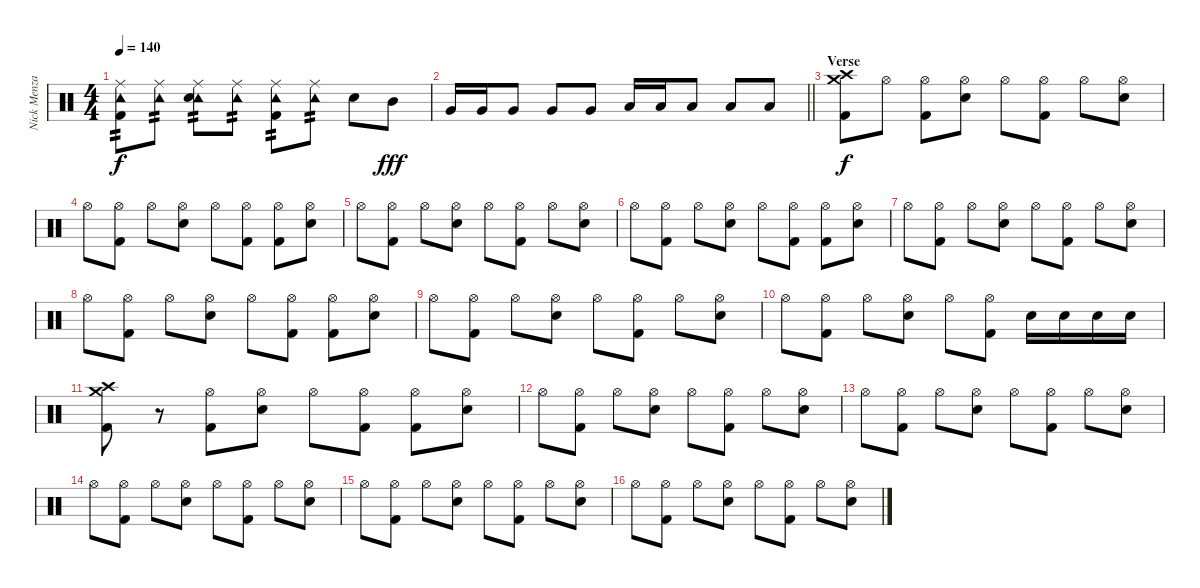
\track ("Nick Menza" "Nick Menza") {instrument percussion}
\staff {score}
\articulation defaults
\ts (4 4)
\tempo 140
\clef neutral
\ks c
("Tambourine (hit)" "Ride (middle)" "Kick (hit) 2").8{tp 2 dy f} ("Tambourine (hit)" "Ride (middle)").8{tp 2} ("Tambourine (hit)" "Ride (middle)" "Snare (hit) 2").8{tp 2} ("Tambourine (hit)" "Ride (middle)").8{tp 2} ("Tambourine (hit)" "Ride (middle)" "Kick (hit) 2").8{tp 2} ("Tambourine (hit)" "Ride (middle)").8{tp 2} "Snare (hit) 2".8 "Mid Tom (hit)".8{dy fff} |
\barLineRight lightlight "Very Low Tom (hit)".16 "Very Low Tom (hit)".16 "Very Low Tom (hit)".8 "Very Low Tom (hit)".8 "Very Low Tom (hit)".8 "Low Floor Tom (hit)".16 "Low Floor Tom (hit)".16 "Low Floor Tom (hit)".8 "Low Floor Tom (hit)".8 "Low Floor Tom (hit)".8
|
\section ("" "Verse")
("Crash high (hit)" "Crash medium (hit)" "Kick (hit) 2").8{dy f} "Hi-Hat (open)".8 ("Hi-Hat (open)" "Kick (hit) 2").8 ("Hi-Hat (open)" "Snare (hit) 2").8 "Hi-Hat (open)".8 ("Hi-Hat (open)" "Kick (hit) 2").8 "Hi-Hat (open)".8 ("Hi-Hat (open)" "Snare (hit) 2").8 |
"Hi-Hat (open)".8 ("Hi-Hat (open)" "Kick (hit) 2").8 "Hi-Hat (open)".8 ("Hi-Hat (open)" "Snare (hit) 2").8 "Hi-Hat (open)".8 ("Hi-Hat (open)" "Kick (hit) 2").8 ("Hi-Hat (open)" "Kick (hit) 2").8 ("Hi-Hat (open)" "Snare (hit) 2").8 |
"Hi-Hat (open)".8 ("Hi-Hat (open)" "Kick (hit) 2").8 "Hi-Hat (open)".8 ("Hi-Hat (open)" "Snare (hit) 2").8 "Hi-Hat (open)".8 ("Hi-Hat (open)" "Kick (hit) 2").8 "Hi-Hat (open)".8 ("Hi-Hat (open)" "Snare (hit) 2").8 |
"Hi-Hat (open)".8 ("Hi-Hat (open)" "Kick (hit) 2").8 "Hi-Hat (open)".8 ("Hi-Hat (open)" "Snare (hit) 2").8 "Hi-Hat (open)".8 ("Hi-Hat (open)" "Kick (hit) 2").8 ("Hi-Hat (open)" "Kick (hit) 2").8 ("Hi-Hat (open)" "Snare (hit) 2").8 |
"Hi-Hat (open)".8 ("Hi-Hat (open)" "Kick (hit) 2").8 "Hi-Hat (open)".8 ("Hi-Hat (open)" "Snare (hit) 2").8 "Hi-Hat (open)".8 ("Hi-Hat (open)" "Kick (hit) 2").8 "Hi-Hat (open)".8 ("Hi-Hat (open)" "Snare (hit) 2").8 |
"Hi-Hat (open)".8 ("Hi-Hat (open)" "Kick (hit) 2").8 "Hi-Hat (open)".8 ("Hi-Hat (open)" "Snare (hit) 2").8 "Hi-Hat (open)".8 ("Hi-Hat (open)" "Kick (hit) 2").8 ("Hi-Hat (open)" "Kick (hit) 2").8 ("Hi-Hat (open)" "Snare (hit) 2").8 |
"Hi-Hat (open)".8 ("Hi-Hat (open)" "Kick (hit) 2").8 "Hi-Hat (open)".8 ("Hi-Hat (open)" "Snare (hit) 2").8 "Hi-Hat (open)".8 ("Hi-Hat (open)" "Kick (hit) 2").8 "Hi-Hat (open)".8 ("Hi-Hat (open)" "Snare (hit) 2").8 |
"Hi-Hat (open)".8 ("Hi-Hat (open)" "Kick (hit) 2").8 "Hi-Hat (open)".8 ("Hi-Hat (open)" "Snare (hit) 2").8 "Hi-Hat (open)".8 ("Hi-Hat (open)" "Kick (hit) 2").8 "Snare (hit) 2".16 "Snare (hit) 2".16 "Snare (hit) 2".16 "Snare (hit) 2".16 |
("Crash high (hit)" "Crash medium (hit)" "Kick (hit) 2").8 r.8 ("Hi-Hat (open)" "Kick (hit) 2").8 ("Hi-Hat (open)" "Snare (hit) 2").8 "Hi-Hat (open)".8 ("Hi-Hat (open)" "Kick (hit) 2").8 ("Hi-Hat (open)" "Kick (hit) 2").8 ("Hi-Hat (open)" "Snare (hit) 2").8 |
"Hi-Hat (open)".8 ("Hi-Hat (open)" "Kick (hit) 2").8 "Hi-Hat (open)".8 ("Hi-Hat (open)" "Snare (hit) 2").8 "Hi-Hat (open)".8 ("Hi-Hat (open)" "Kick (hit) 2").8 "Hi-Hat (open)".8 ("Hi-Hat (open)" "Snare (hit) 2").8 |
"Hi-Hat (open)".8 ("Hi-Hat (open)" "Kick (hit) 2").8 "Hi-Hat (open)".8 ("Hi-Hat (open)" "Snare (hit) 2").8 "Hi-Hat (open)".8 ("Hi-Hat (open)" "Kick (hit) 2").8 "Hi-Hat (open)".8 ("Hi-Hat (open)" "Snare (hit) 2").8 |
"Hi-Hat (open)".8 ("Hi-Hat (open)" "Kick (hit) 2").8 "Hi-Hat (open)".8 ("Hi-Hat (open)" "Snare (hit) 2").8 "Hi-Hat (open)".8 ("Hi-Hat (open)" "Kick (hit) 2").8 "Hi-Hat (open)".8 ("Hi-Hat (open)" "Snare (hit) 2").8 |
"Hi-Hat (open)".8 ("Hi-Hat (open)" "Kick (hit) 2").8 "Hi-Hat (open)".8 ("Hi-Hat (open)" "Snare (hit) 2").8 "Hi-Hat (open)".8 ("Hi-Hat (open)" "Kick (hit) 2").8 "Hi-Hat (open)".8 ("Hi-Hat (open)" "Snare (hit) 2").8 |
"Hi-Hat (open)".8 ("Hi-Hat (open)" "Kick (hit) 2").8 "Hi-Hat (open)".8 ("Hi-Hat (open)" "Snare (hit) 2").8 "Hi-Hat (open)".8 ("Hi-Hat (open)" "Kick (hit) 2").8 "Hi-Hat (open)".8 ("Hi-Hat (open)" "Snare (hit) 2").8
